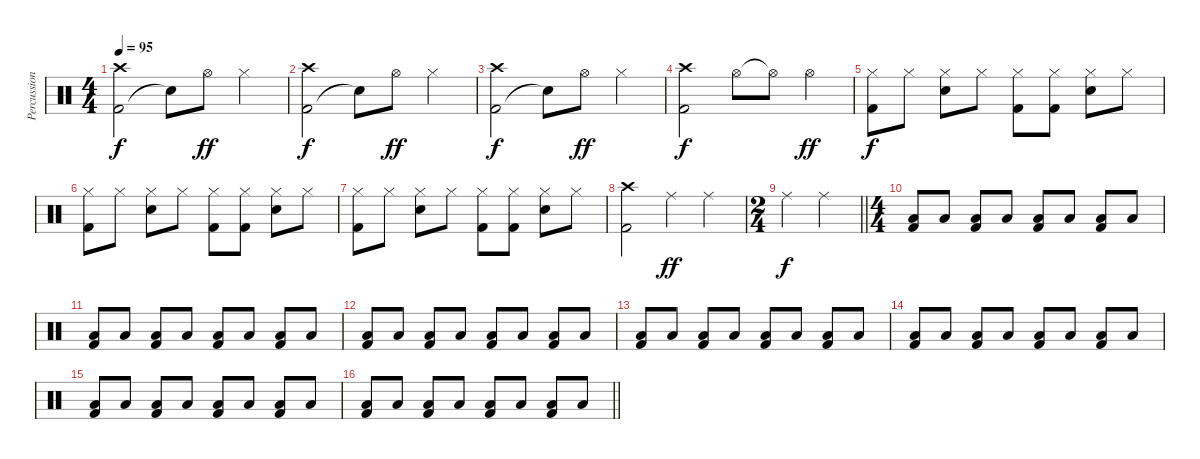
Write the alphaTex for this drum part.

\track ("Percussion" "Percussion") {instrument percussion}
\staff {score}
\articulation defaults
\ts (4 4)
\tempo 95
\clef neutral
\ks c
("Kick (hit) 2" "Crash high (hit)").2{dy f} "Snare (hit)"{t}.8 "Hi-Hat (open)".8{dy ff} "Hi-Hat (closed)".4 |
("Kick (hit) 2" "Crash high (hit)").2{dy f} "Snare (hit)"{t}.8 "Hi-Hat (open)".8{dy ff} "Hi-Hat (closed)".4 |
("Kick (hit) 2" "Crash high (hit)").2{dy f} "Snare (hit)"{t}.8 "Hi-Hat (open)".8{dy ff} "Hi-Hat (closed)".4 |
("Kick (hit) 2" "Crash high (hit)").2{dy f} "Hi-Hat (open)".8 "Hi-Hat (open)"{t}.8 "Hi-Hat (open)".4{dy ff} |
("Hi-Hat (closed)" "Kick (hit) 2").8{dy f} "Hi-Hat (closed)".8 ("Hi-Hat (closed)" "Snare (hit) 2").8 "Hi-Hat (closed)".8 ("Hi-Hat (closed)" "Kick (hit) 2").8 ("Hi-Hat (closed)" "Kick (hit) 2").8 ("Hi-Hat (closed)" "Snare (hit) 2").8 "Hi-Hat (closed)".8 |
("Hi-Hat (closed)" "Kick (hit) 2").8 "Hi-Hat (closed)".8 ("Hi-Hat (closed)" "Snare (hit) 2").8 "Hi-Hat (closed)".8 ("Hi-Hat (closed)" "Kick (hit) 2").8 ("Hi-Hat (closed)" "Kick (hit) 2").8 ("Hi-Hat (closed)" "Snare (hit) 2").8 "Hi-Hat (closed)".8 |
("Hi-Hat (closed)" "Kick (hit) 2").8 "Hi-Hat (closed)".8 ("Hi-Hat (closed)" "Snare (hit) 2").8 "Hi-Hat (closed)".8 ("Hi-Hat (closed)" "Kick (hit) 2").8 ("Hi-Hat (closed)" "Kick (hit) 2").8 ("Hi-Hat (closed)" "Snare (hit) 2").8 "Hi-Hat (closed)".8 |
("Kick (hit) 2" "Crash high (hit)").2 "Ride (middle)".4{dy ff} "Ride (middle)".4 |
\ts (2 4)
\barLineRight lightlight "Ride (middle)".4{dy f} "Ride (middle)".4
|
\ts (4 4)
("Low Floor Tom (hit)" "Kick (hit) 2").8 "Low Floor Tom (hit)".8 ("Low Floor Tom (hit)" "Kick (hit) 2").8 "Low Floor Tom (hit)".8 ("Low Floor Tom (hit)" "Kick (hit) 2").8 "Low Floor Tom (hit)".8 ("Low Floor Tom (hit)" "Kick (hit) 2").8 "Low Floor Tom (hit)".8 |
("Low Floor Tom (hit)" "Kick (hit) 2").8 "Low Floor Tom (hit)".8 ("Low Floor Tom (hit)" "Kick (hit) 2").8 "Low Floor Tom (hit)".8 ("Low Floor Tom (hit)" "Kick (hit) 2").8 "Low Floor Tom (hit)".8 ("Low Floor Tom (hit)" "Kick (hit) 2").8 "Low Floor Tom (hit)".8 |
("Low Floor Tom (hit)" "Kick (hit) 2").8 "Low Floor Tom (hit)".8 ("Low Floor Tom (hit)" "Kick (hit) 2").8 "Low Floor Tom (hit)".8 ("Low Floor Tom (hit)" "Kick (hit) 2").8 "Low Floor Tom (hit)".8 ("Low Floor Tom (hit)" "Kick (hit) 2").8 "Low Floor Tom (hit)".8 |
("Low Floor Tom (hit)" "Kick (hit) 2").8 "Low Floor Tom (hit)".8 ("Low Floor Tom (hit)" "Kick (hit) 2").8 "Low Floor Tom (hit)".8 ("Low Floor Tom (hit)" "Kick (hit) 2").8 "Low Floor Tom (hit)".8 ("Low Floor Tom (hit)" "Kick (hit) 2").8 "Low Floor Tom (hit)".8 |
("Low Floor Tom (hit)" "Kick (hit) 2").8 "Low Floor Tom (hit)".8 ("Low Floor Tom (hit)" "Kick (hit) 2").8 "Low Floor Tom (hit)".8 ("Low Floor Tom (hit)" "Kick (hit) 2").8 "Low Floor Tom (hit)".8 ("Low Floor Tom (hit)" "Kick (hit) 2").8 "Low Floor Tom (hit)".8 |
("Low Floor Tom (hit)" "Kick (hit) 2").8 "Low Floor Tom (hit)".8 ("Low Floor Tom (hit)" "Kick (hit) 2").8 "Low Floor Tom (hit)".8 ("Low Floor Tom (hit)" "Kick (hit) 2").8 "Low Floor Tom (hit)".8 ("Low Floor Tom (hit)" "Kick (hit) 2").8 "Low Floor Tom (hit)".8 |
\barLineRight lightlight
("Low Floor Tom (hit)" "Kick (hit) 2").8 "Low Floor Tom (hit)".8 ("Low Floor Tom (hit)" "Kick (hit) 2").8 "Low Floor Tom (hit)".8 ("Low Floor Tom (hit)" "Kick (hit) 2").8 "Low Floor Tom (hit)".8 ("Low Floor Tom (hit)" "Kick (hit) 2").8 "Low Floor Tom (hit)".8
